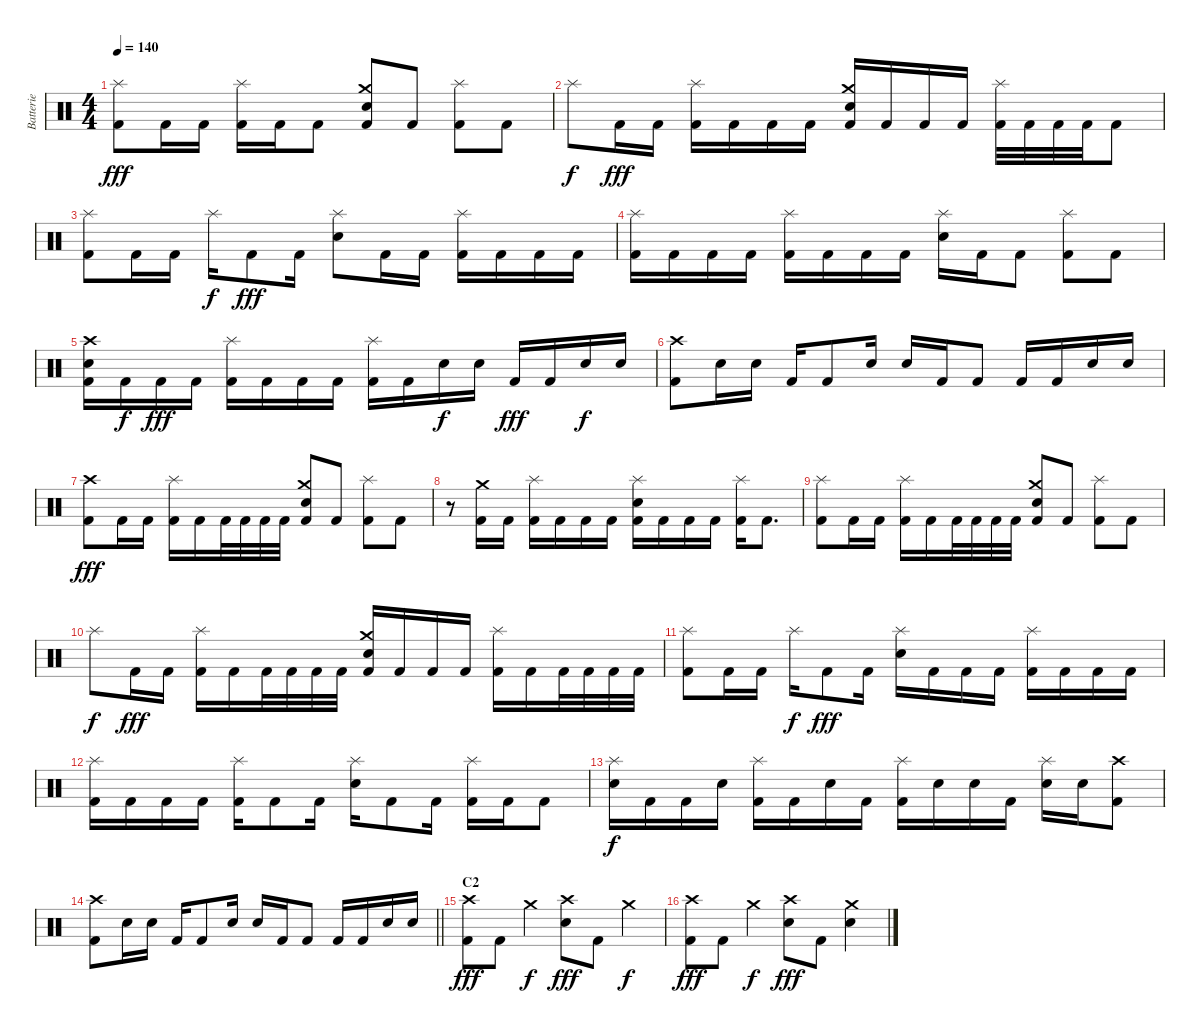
\track ("Batterie" "Batterie") {instrument percussion}
\staff {score}
\articulation defaults
\ts (4 4)
\tempo 140
\clef neutral
\ks c
("Splash (hit)" "Kick (hit) 2").8{dy fff} "Kick (hit) 2".16 "Kick (hit) 2".16 ("Splash (hit)" "Kick (hit) 2").16 "Kick (hit) 2".16 "Kick (hit) 2".8 ("Crash medium (hit)" "Electric Snare (hit)" "Kick (hit) 2").8 "Kick (hit) 2".8 ("Splash (hit)" "Kick (hit) 2").8 "Kick (hit) 2".8 |
"Splash (hit)".8{dy f} "Kick (hit) 2".16{dy fff} "Kick (hit) 2".16 ("Splash (hit)" "Kick (hit) 2").16 "Kick (hit) 2".16 "Kick (hit) 2".16 "Kick (hit) 2".16 ("Crash medium (hit)" "Electric Snare (hit)" "Kick (hit) 2").16 "Kick (hit) 2".16 "Kick (hit) 2".16 "Kick (hit) 2".16 ("Splash (hit)" "Kick (hit) 2").32 "Kick (hit) 2".32 "Kick (hit) 2".32 "Kick (hit) 2".32 "Kick (hit) 2".8 |
("Splash (hit)" "Kick (hit) 2").8 "Kick (hit) 2".16 "Kick (hit) 2".16 "Splash (hit)".16{dy f} "Kick (hit) 2".8{dy fff} "Kick (hit) 2".16 ("Splash (hit)" "Electric Snare (hit)").8 "Kick (hit) 2".16 "Kick (hit) 2".16 ("Splash (hit)" "Kick (hit) 2").16 "Kick (hit) 2".16 "Kick (hit) 2".16 "Kick (hit) 2".16 |
("Splash (hit)" "Kick (hit) 2").16 "Kick (hit) 2".16 "Kick (hit) 2".16 "Kick (hit) 2".16 ("Splash (hit)" "Kick (hit) 2").16 "Kick (hit) 2".16 "Kick (hit) 2".16 "Kick (hit) 2".16 ("Splash (hit)" "Electric Snare (hit)").16 "Kick (hit) 2".16 "Kick (hit) 2".8 ("Splash (hit)" "Kick (hit) 2").8 "Kick (hit) 2".8 |
("Crash high (hit)" "Electric Snare (hit)" "Kick (hit) 2").16 "Kick (hit) 2".16{dy f} "Kick (hit) 2".16{dy fff} "Kick (hit) 2".16 ("Splash (hit)" "Kick (hit) 2").16 "Kick (hit) 2".16 "Kick (hit) 2".16 "Kick (hit) 2".16 ("Splash (hit)" "Kick (hit) 2").16 "Kick (hit) 2".16 "Electric Snare (hit)".16{dy f} "Electric Snare (hit)".16 "Kick (hit) 2".16{dy fff} "Kick (hit) 2".16 "Electric Snare (hit)".16{dy f} "Electric Snare (hit)".16 |
("Crash high (hit)" "Kick (hit) 2").8 "Electric Snare (hit)".16 "Electric Snare (hit)".16 "Kick (hit) 2".16 "Kick (hit) 2".8 "Electric Snare (hit)".16 "Electric Snare (hit)".16 "Kick (hit) 2".16 "Kick (hit) 2".8 "Kick (hit) 2".16 "Kick (hit) 2".16 "Electric Snare (hit)".16 "Electric Snare (hit)".16 |
("Crash high (hit)" "Kick (hit) 2").8{dy fff} "Kick (hit) 2".16 "Kick (hit) 2".16 ("Splash (hit)" "Kick (hit) 2").16 "Kick (hit) 2".16 "Kick (hit) 2".32 "Kick (hit) 2".32 "Kick (hit) 2".32 "Kick (hit) 2".32 ("Crash medium (hit)" "Electric Snare (hit)" "Kick (hit) 2").8 "Kick (hit) 2".8 ("Splash (hit)" "Kick (hit) 2").8 "Kick (hit) 2".8 |
r.8 ("Crash medium (hit)" "Kick (hit) 2").16 "Kick (hit) 2".16 ("Splash (hit)" "Kick (hit) 2").16 "Kick (hit) 2".16 "Kick (hit) 2".16 "Kick (hit) 2".16 ("Splash (hit)" "Electric Snare (hit)" "Kick (hit) 2").16 "Kick (hit) 2".16 "Kick (hit) 2".16 "Kick (hit) 2".16 ("Splash (hit)" "Kick (hit) 2").16 "Kick (hit) 2".8{d} |
("Splash (hit)" "Kick (hit) 2").8 "Kick (hit) 2".16 "Kick (hit) 2".16 ("Splash (hit)" "Kick (hit) 2").16 "Kick (hit) 2".16 "Kick (hit) 2".32 "Kick (hit) 2".32 "Kick (hit) 2".32 "Kick (hit) 2".32 ("Crash medium (hit)" "Electric Snare (hit)" "Kick (hit) 2").8 "Kick (hit) 2".8 ("Splash (hit)" "Kick (hit) 2").8 "Kick (hit) 2".8 |
"Splash (hit)".8{dy f} "Kick (hit) 2".16{dy fff} "Kick (hit) 2".16 ("Splash (hit)" "Kick (hit) 2").16 "Kick (hit) 2".16 "Kick (hit) 2".32 "Kick (hit) 2".32 "Kick (hit) 2".32 "Kick (hit) 2".32 ("Crash medium (hit)" "Electric Snare (hit)" "Kick (hit) 2").16 "Kick (hit) 2".16 "Kick (hit) 2".16 "Kick (hit) 2".16 ("Splash (hit)" "Kick (hit) 2").16 "Kick (hit) 2".16 "Kick (hit) 2".32 "Kick (hit) 2".32 "Kick (hit) 2".32 "Kick (hit) 2".32 |
("Splash (hit)" "Kick (hit) 2").8 "Kick (hit) 2".16 "Kick (hit) 2".16 "Splash (hit)".16{dy f} "Kick (hit) 2".8{dy fff} "Kick (hit) 2".16 ("Splash (hit)" "Electric Snare (hit)").16 "Kick (hit) 2".16 "Kick (hit) 2".16 "Kick (hit) 2".16 ("Splash (hit)" "Kick (hit) 2").16 "Kick (hit) 2".16 "Kick (hit) 2".16 "Kick (hit) 2".16 |
("Splash (hit)" "Kick (hit) 2").16 "Kick (hit) 2".16 "Kick (hit) 2".16 "Kick (hit) 2".16 ("Splash (hit)" "Kick (hit) 2").16 "Kick (hit) 2".8 "Kick (hit) 2".16 ("Splash (hit)" "Electric Snare (hit)").16 "Kick (hit) 2".8 "Kick (hit) 2".16 ("Splash (hit)" "Kick (hit) 2").16 "Kick (hit) 2".16 "Kick (hit) 2".8 |
("Splash (hit)" "Electric Snare (hit)").16{dy f} "Kick (hit) 2".16 "Kick (hit) 2".16 "Electric Snare (hit)".16 ("Splash (hit)" "Kick (hit) 2").16 "Kick (hit) 2".16 "Electric Snare (hit)".16 "Kick (hit) 2".16 ("Splash (hit)" "Kick (hit) 2").16 "Electric Snare (hit)".16 "Electric Snare (hit)".16 "Kick (hit) 2".16 ("Splash (hit)" "Electric Snare (hit)").16 "Electric Snare (hit)".16 ("Crash high (hit)" "Kick (hit) 2").8 |
\barLineRight lightlight
("Crash high (hit)" "Kick (hit) 2").8 "Electric Snare (hit)".16 "Electric Snare (hit)".16 "Kick (hit) 2".16 "Kick (hit) 2".8 "Electric Snare (hit)".16 "Electric Snare (hit)".16 "Kick (hit) 2".16 "Kick (hit) 2".8 "Kick (hit) 2".16 "Kick (hit) 2".16 "Electric Snare (hit)".16 "Electric Snare (hit)".16 |
\section ("" "C2")
("Crash high (hit)" "Kick (hit) 2").8{dy fff} "Kick (hit) 2".8 "Crash medium (hit)".4{dy f} ("Crash high (hit)" "Electric Snare (hit)").8{dy fff} "Kick (hit) 2".8 "Crash medium (hit)".4{dy f} |
("Crash high (hit)" "Kick (hit) 2").8{dy fff} "Kick (hit) 2".8 "Crash medium (hit)".4{dy f} ("Crash high (hit)" "Electric Snare (hit)").8{dy fff} "Kick (hit) 2".8 ("Crash medium (hit)" "Electric Snare (hit)").4
